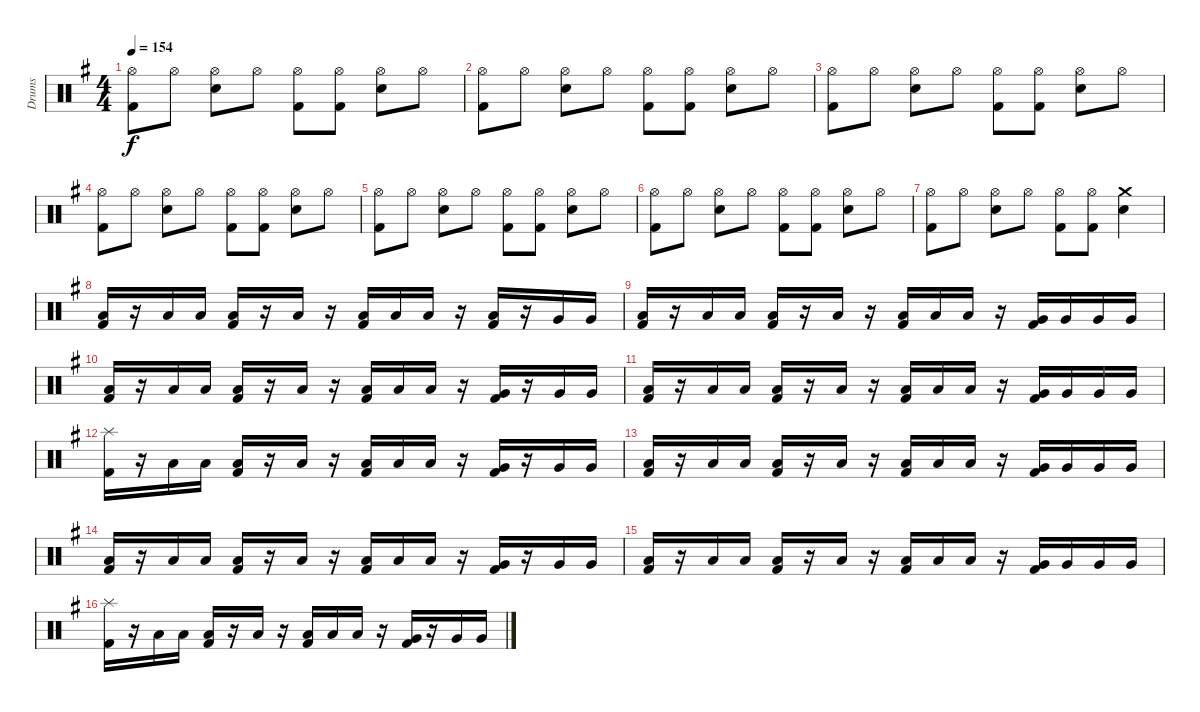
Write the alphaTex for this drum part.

\track ("Drums" "Drums") {instrument percussion}
\staff {score}
\articulation defaults
\ts (4 4)
\tempo 154
\clef neutral
\ks g
("Hi-Hat (open)" "Kick (hit) 2").8{dy f} "Hi-Hat (open)".8 ("Hi-Hat (open)" "Electric Snare (hit)").8 "Hi-Hat (open)".8 ("Hi-Hat (open)" "Kick (hit) 2").8 ("Kick (hit) 2" "Hi-Hat (open)").8 ("Electric Snare (hit)" "Hi-Hat (open)").8 "Hi-Hat (open)".8 |
("Hi-Hat (open)" "Kick (hit) 2").8 "Hi-Hat (open)".8 ("Hi-Hat (open)" "Electric Snare (hit)").8 "Hi-Hat (open)".8 ("Hi-Hat (open)" "Kick (hit) 2").8 ("Kick (hit) 2" "Hi-Hat (open)").8 ("Electric Snare (hit)" "Hi-Hat (open)").8 "Hi-Hat (open)".8 |
("Hi-Hat (open)" "Kick (hit) 2").8 "Hi-Hat (open)".8 ("Hi-Hat (open)" "Electric Snare (hit)").8 "Hi-Hat (open)".8 ("Hi-Hat (open)" "Kick (hit) 2").8 ("Kick (hit) 2" "Hi-Hat (open)").8 ("Electric Snare (hit)" "Hi-Hat (open)").8 "Hi-Hat (open)".8 |
("Hi-Hat (open)" "Kick (hit) 2").8 "Hi-Hat (open)".8 ("Hi-Hat (open)" "Electric Snare (hit)").8 "Hi-Hat (open)".8 ("Hi-Hat (open)" "Kick (hit) 2").8 ("Kick (hit) 2" "Hi-Hat (open)").8 ("Electric Snare (hit)" "Hi-Hat (open)").8 "Hi-Hat (open)".8 |
("Hi-Hat (open)" "Kick (hit) 2").8 "Hi-Hat (open)".8 ("Hi-Hat (open)" "Electric Snare (hit)").8 "Hi-Hat (open)".8 ("Hi-Hat (open)" "Kick (hit) 2").8 ("Kick (hit) 2" "Hi-Hat (open)").8 ("Electric Snare (hit)" "Hi-Hat (open)").8 "Hi-Hat (open)".8 |
("Hi-Hat (open)" "Kick (hit) 2").8 "Hi-Hat (open)".8 ("Hi-Hat (open)" "Electric Snare (hit)").8 "Hi-Hat (open)".8 ("Hi-Hat (open)" "Kick (hit) 2").8 ("Kick (hit) 2" "Hi-Hat (open)").8 ("Electric Snare (hit)" "Hi-Hat (open)").8 "Hi-Hat (open)".8 |
("Hi-Hat (open)" "Kick (hit) 2").8 "Hi-Hat (open)".8 ("Hi-Hat (open)" "Electric Snare (hit)").8 "Hi-Hat (open)".8 ("Hi-Hat (open)" "Kick (hit) 2").8 ("Kick (hit) 2" "Hi-Hat (open)").8 ("Electric Snare (hit)" "Crash medium (hit)").4 |
("Low Tom (hit)" "Kick (hit) 2").16 r.16 "Low Tom (hit)".16 "Low Tom (hit)".16 ("Low Tom (hit)" "Kick (hit) 2").16 r.16 "Low Tom (hit)".16 r.16 ("Low Tom (hit)" "Kick (hit) 2").16 "Low Tom (hit)".16 "Low Tom (hit)".16 r.16 ("Low Tom (hit)" "Kick (hit) 2").16 r.16 "Very Low Tom (hit)".16 "Very Low Tom (hit)".16 |
("Low Tom (hit)" "Kick (hit) 2").16 r.16 "Low Tom (hit)".16 "Low Tom (hit)".16 ("Low Tom (hit)" "Kick (hit) 2").16 r.16 "Low Tom (hit)".16 r.16 ("Low Tom (hit)" "Kick (hit) 2").16 "Low Tom (hit)".16 "Low Tom (hit)".16 r.16 ("Very Low Tom (hit)" "Kick (hit) 2").16 "Very Low Tom (hit)".16 "Very Low Tom (hit)".16 "Very Low Tom (hit)".16 |
("Low Tom (hit)" "Kick (hit) 2").16 r.16 "Low Tom (hit)".16 "Low Tom (hit)".16 ("Low Tom (hit)" "Kick (hit) 2").16 r.16 "Low Tom (hit)".16 r.16 ("Low Tom (hit)" "Kick (hit) 2").16 "Low Tom (hit)".16 "Low Tom (hit)".16 r.16 ("Very Low Tom (hit)" "Kick (hit) 2").16 r.16 "Very Low Tom (hit)".16 "Very Low Tom (hit)".16 |
("Low Tom (hit)" "Kick (hit) 2").16 r.16 "Low Tom (hit)".16 "Low Tom (hit)".16 ("Low Tom (hit)" "Kick (hit) 2").16 r.16 "Low Tom (hit)".16 r.16 ("Low Tom (hit)" "Kick (hit) 2").16 "Low Tom (hit)".16 "Low Tom (hit)".16 r.16 ("Very Low Tom (hit)" "Kick (hit) 2").16 "Very Low Tom (hit)".16 "Very Low Tom (hit)".16 "Very Low Tom (hit)".16 |
("Kick (hit) 2" "Splash (hit)").16 r.16 "Low Tom (hit)".16 "Low Tom (hit)".16 ("Low Tom (hit)" "Kick (hit) 2").16 r.16 "Low Tom (hit)".16 r.16 ("Low Tom (hit)" "Kick (hit) 2").16 "Low Tom (hit)".16 "Low Tom (hit)".16 r.16 ("Very Low Tom (hit)" "Kick (hit) 2").16 r.16 "Very Low Tom (hit)".16 "Very Low Tom (hit)".16 |
("Low Tom (hit)" "Kick (hit) 2").16 r.16 "Low Tom (hit)".16 "Low Tom (hit)".16 ("Low Tom (hit)" "Kick (hit) 2").16 r.16 "Low Tom (hit)".16 r.16 ("Low Tom (hit)" "Kick (hit) 2").16 "Low Tom (hit)".16 "Low Tom (hit)".16 r.16 ("Very Low Tom (hit)" "Kick (hit) 2").16 "Very Low Tom (hit)".16 "Very Low Tom (hit)".16 "Very Low Tom (hit)".16 |
("Low Tom (hit)" "Kick (hit) 2").16 r.16 "Low Tom (hit)".16 "Low Tom (hit)".16 ("Low Tom (hit)" "Kick (hit) 2").16 r.16 "Low Tom (hit)".16 r.16 ("Low Tom (hit)" "Kick (hit) 2").16 "Low Tom (hit)".16 "Low Tom (hit)".16 r.16 ("Very Low Tom (hit)" "Kick (hit) 2").16 r.16 "Very Low Tom (hit)".16 "Very Low Tom (hit)".16 |
("Low Tom (hit)" "Kick (hit) 2").16 r.16 "Low Tom (hit)".16 "Low Tom (hit)".16 ("Low Tom (hit)" "Kick (hit) 2").16 r.16 "Low Tom (hit)".16 r.16 ("Low Tom (hit)" "Kick (hit) 2").16 "Low Tom (hit)".16 "Low Tom (hit)".16 r.16 ("Very Low Tom (hit)" "Kick (hit) 2").16 "Very Low Tom (hit)".16 "Very Low Tom (hit)".16 "Very Low Tom (hit)".16 |
("Kick (hit) 2" "Splash (hit)").16 r.16 "Low Tom (hit)".16 "Low Tom (hit)".16 ("Low Tom (hit)" "Kick (hit) 2").16 r.16 "Low Tom (hit)".16 r.16 ("Low Tom (hit)" "Kick (hit) 2").16 "Low Tom (hit)".16 "Low Tom (hit)".16 r.16 ("Very Low Tom (hit)" "Kick (hit) 2").16 r.16 "Very Low Tom (hit)".16 "Very Low Tom (hit)".16
